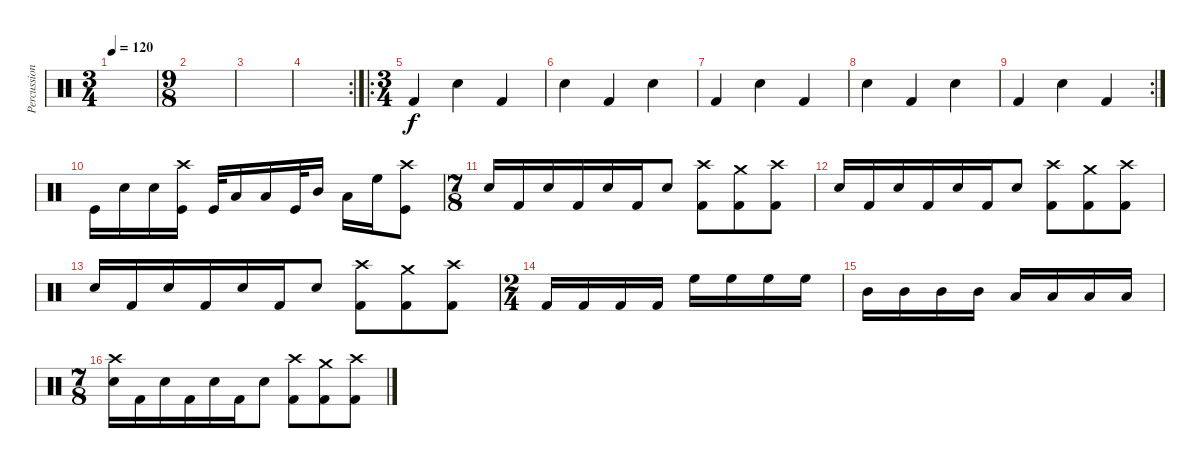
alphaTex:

\track ("Percussion" "Percussion") {instrument percussion}
\staff {score}
\articulation defaults
\ts (3 4)
\tempo 120
\clef neutral
\ks c
|
\ts (9 8)
|
|
\rc 2
|
\ro
\ts (3 4)
"Kick (hit) 2".4 "Snare (hit) 2".4 "Kick (hit) 2".4 |
"Snare (hit) 2".4 "Kick (hit) 2".4 "Snare (hit) 2".4 |
"Kick (hit) 2".4 "Snare (hit) 2".4 "Kick (hit) 2".4 |
"Snare (hit) 2".4 "Kick (hit) 2".4 "Snare (hit) 2".4 |
\rc 2 "Kick (hit) 2".4 "Snare (hit) 2".4 "Kick (hit) 2".4
|
"Kick (hit)".16 "Snare (hit) 2".16 "Snare (hit) 2".16 ("Kick (hit)" "Crash high (hit)").16 "Kick (hit)".32 "Low Tom (hit)".16 "Low Tom (hit)".16 "Kick (hit)".32 "Mid Tom (hit)".16 "Low Tom (hit)".16 "High Floor Tom (hit)".16 ("Kick (hit)" "Crash high (hit)").8 |
\ts (7 8)
"Snare (hit) 2".16 "Kick (hit) 2".16 "Snare (hit) 2".16 "Kick (hit) 2".16 "Snare (hit) 2".16 "Kick (hit) 2".16 "Snare (hit) 2".8 ("Crash high (hit)" "Kick (hit) 2").8 ("Crash medium (hit)" "Kick (hit) 2").8 ("Crash high (hit)" "Kick (hit) 2").8 |
"Snare (hit) 2".16 "Kick (hit) 2".16 "Snare (hit) 2".16 "Kick (hit) 2".16 "Snare (hit) 2".16 "Kick (hit) 2".16 "Snare (hit) 2".8 ("Crash high (hit)" "Kick (hit) 2").8 ("Crash medium (hit)" "Kick (hit) 2").8 ("Crash high (hit)" "Kick (hit) 2").8 |
"Snare (hit) 2".16 "Kick (hit) 2".16 "Snare (hit) 2".16 "Kick (hit) 2".16 "Snare (hit) 2".16 "Kick (hit) 2".16 "Snare (hit) 2".8 ("Crash high (hit)" "Kick (hit) 2").8 ("Crash medium (hit)" "Kick (hit) 2").8 ("Crash high (hit)" "Kick (hit) 2").8 |
\ts (2 4)
"Kick (hit) 2".16 "Kick (hit) 2".16 "Kick (hit) 2".16 "Kick (hit) 2".16 "High Floor Tom (hit)".16 "High Floor Tom (hit)".16 "High Floor Tom (hit)".16 "High Floor Tom (hit)".16 |
"Mid Tom (hit)".16 "Mid Tom (hit)".16 "Mid Tom (hit)".16 "Mid Tom (hit)".16 "Low Tom (hit)".16 "Low Tom (hit)".16 "Low Tom (hit)".16 "Low Tom (hit)".16 |
\ts (7 8)
("Crash high (hit)" "Snare (hit) 2").16 "Kick (hit) 2".16 "Snare (hit) 2".16 "Kick (hit) 2".16 "Snare (hit) 2".16 "Kick (hit) 2".16 "Snare (hit) 2".8 ("Crash high (hit)" "Kick (hit) 2").8 ("Crash medium (hit)" "Kick (hit) 2").8 ("Crash high (hit)" "Kick (hit) 2").8
